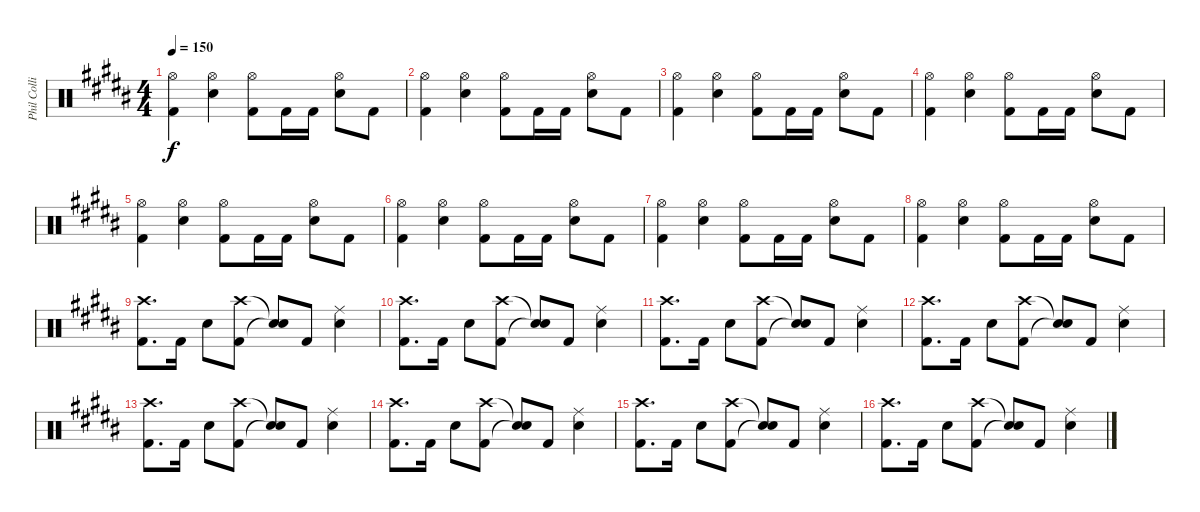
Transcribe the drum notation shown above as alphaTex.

\track ("Phil Collins [Drums]" "Phil Colli") {instrument percussion}
\staff {score}
\articulation defaults
\ts (4 4)
\tempo 150
\clef neutral
\ks b
("Hi-Hat (open)" "Kick (hit) 2").4{dy f} ("Hi-Hat (open)" "Electric Snare (hit)").4 ("Hi-Hat (open)" "Kick (hit) 2").8 "Kick (hit) 2".16 "Kick (hit) 2".16 ("Hi-Hat (open)" "Electric Snare (hit)").8 "Kick (hit) 2".8 |
("Hi-Hat (open)" "Kick (hit) 2").4 ("Hi-Hat (open)" "Electric Snare (hit)").4 ("Hi-Hat (open)" "Kick (hit) 2").8 "Kick (hit) 2".16 "Kick (hit) 2".16 ("Hi-Hat (open)" "Electric Snare (hit)").8 "Kick (hit) 2".8 |
("Hi-Hat (open)" "Kick (hit) 2").4 ("Hi-Hat (open)" "Electric Snare (hit)").4 ("Hi-Hat (open)" "Kick (hit) 2").8 "Kick (hit) 2".16 "Kick (hit) 2".16 ("Hi-Hat (open)" "Electric Snare (hit)").8 "Kick (hit) 2".8 |
("Hi-Hat (open)" "Kick (hit) 2").4 ("Hi-Hat (open)" "Electric Snare (hit)").4 ("Hi-Hat (open)" "Kick (hit) 2").8 "Kick (hit) 2".16 "Kick (hit) 2".16 ("Hi-Hat (open)" "Electric Snare (hit)").8 "Kick (hit) 2".8 |
("Hi-Hat (open)" "Kick (hit) 2").4 ("Hi-Hat (open)" "Electric Snare (hit)").4 ("Hi-Hat (open)" "Kick (hit) 2").8 "Kick (hit) 2".16 "Kick (hit) 2".16 ("Hi-Hat (open)" "Electric Snare (hit)").8 "Kick (hit) 2".8 |
("Hi-Hat (open)" "Kick (hit) 2").4 ("Hi-Hat (open)" "Electric Snare (hit)").4 ("Hi-Hat (open)" "Kick (hit) 2").8 "Kick (hit) 2".16 "Kick (hit) 2".16 ("Hi-Hat (open)" "Electric Snare (hit)").8 "Kick (hit) 2".8 |
("Hi-Hat (open)" "Kick (hit) 2").4 ("Hi-Hat (open)" "Electric Snare (hit)").4 ("Hi-Hat (open)" "Kick (hit) 2").8 "Kick (hit) 2".16 "Kick (hit) 2".16 ("Hi-Hat (open)" "Electric Snare (hit)").8 "Kick (hit) 2".8 |
("Hi-Hat (open)" "Kick (hit) 2").4 ("Hi-Hat (open)" "Electric Snare (hit)").4 ("Hi-Hat (open)" "Kick (hit) 2").8 "Kick (hit) 2".16 "Kick (hit) 2".16 ("Hi-Hat (open)" "Electric Snare (hit)").8 "Kick (hit) 2".8 |
("Crash high (hit)" "Kick (hit) 2").8{d} "Kick (hit) 2".16 "Electric Snare (hit)".8 ("Crash high (hit)" "Kick (hit) 2").8 ("Snare (hit)"{t} "Snare (hit)"{t}).8 "Kick (hit) 2".8 ("Ride (middle)" "Electric Snare (hit)").4 |
("Crash high (hit)" "Kick (hit) 2").8{d} "Kick (hit) 2".16 "Electric Snare (hit)".8 ("Crash high (hit)" "Kick (hit) 2").8 ("Snare (hit)"{t} "Snare (hit)"{t}).8 "Kick (hit) 2".8 ("Ride (middle)" "Electric Snare (hit)").4 |
("Crash high (hit)" "Kick (hit) 2").8{d} "Kick (hit) 2".16 "Electric Snare (hit)".8 ("Crash high (hit)" "Kick (hit) 2").8 ("Snare (hit)"{t} "Snare (hit)"{t}).8 "Kick (hit) 2".8 ("Ride (middle)" "Electric Snare (hit)").4 |
("Crash high (hit)" "Kick (hit) 2").8{d} "Kick (hit) 2".16 "Electric Snare (hit)".8 ("Crash high (hit)" "Kick (hit) 2").8 ("Snare (hit)"{t} "Snare (hit)"{t}).8 "Kick (hit) 2".8 ("Ride (middle)" "Electric Snare (hit)").4 |
("Crash high (hit)" "Kick (hit) 2").8{d} "Kick (hit) 2".16 "Electric Snare (hit)".8 ("Crash high (hit)" "Kick (hit) 2").8 ("Snare (hit)"{t} "Snare (hit)"{t}).8 "Kick (hit) 2".8 ("Ride (middle)" "Electric Snare (hit)").4 |
("Crash high (hit)" "Kick (hit) 2").8{d} "Kick (hit) 2".16 "Electric Snare (hit)".8 ("Crash high (hit)" "Kick (hit) 2").8 ("Snare (hit)"{t} "Snare (hit)"{t}).8 "Kick (hit) 2".8 ("Ride (middle)" "Electric Snare (hit)").4 |
("Crash high (hit)" "Kick (hit) 2").8{d} "Kick (hit) 2".16 "Electric Snare (hit)".8 ("Crash high (hit)" "Kick (hit) 2").8 ("Snare (hit)"{t} "Snare (hit)"{t}).8 "Kick (hit) 2".8 ("Ride (middle)" "Electric Snare (hit)").4 |
("Crash high (hit)" "Kick (hit) 2").8{d} "Kick (hit) 2".16 "Electric Snare (hit)".8 ("Crash high (hit)" "Kick (hit) 2").8 ("Snare (hit)"{t} "Snare (hit)"{t}).8 "Kick (hit) 2".8 ("Ride (middle)" "Electric Snare (hit)").4
